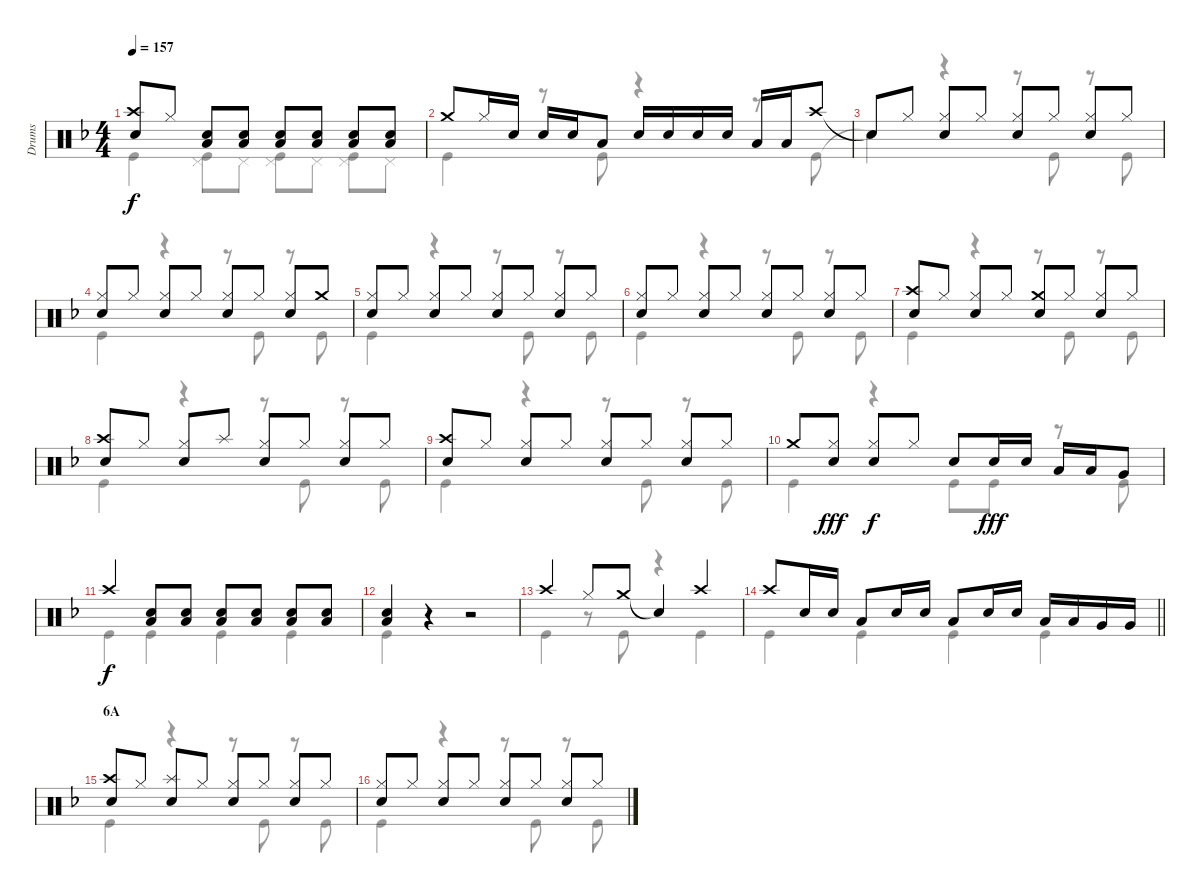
\track ("Drums" "Drums") {instrument percussion}
\staff {score}
\articulation defaults
\voice
\ts (4 4)
\tempo 157
\clef neutral
\ks f
("Crash high (hit)" "Snare (hit) 2").8{dy f} "Hi-Hat (closed)".8 ("Low Tom (hit)" "Snare (hit) 2").8 ("Low Tom (hit)" "Snare (hit) 2").8 ("Low Tom (hit)" "Snare (hit) 2").8 ("Low Tom (hit)" "Snare (hit) 2").8 ("Low Tom (hit)" "Snare (hit) 2").8 ("Low Tom (hit)" "Snare (hit) 2").8 |
"Crash medium (hit)".8 "Hi-Hat (closed)".16 "Snare (hit) 2".16 "Snare (hit) 2".16 "Snare (hit) 2".16 "Low Tom (hit)".8 "Snare (hit) 2".16 "Snare (hit) 2".16 "Snare (hit) 2".16 "Snare (hit) 2".16 "Low Tom (hit)".16 "Low Tom (hit)".16 "Crash high (hit)".8 |
"Snare (hit)"{t}.8 "Hi-Hat (closed)".8 ("Hi-Hat (closed)" "Snare (hit) 2").8 "Hi-Hat (closed)".8 ("Hi-Hat (closed)" "Snare (hit) 2").8 "Hi-Hat (closed)".8 ("Hi-Hat (closed)" "Snare (hit) 2").8 "Hi-Hat (closed)".8 |
("Hi-Hat (closed)" "Snare (hit) 2").8 "Hi-Hat (closed)".8 ("Hi-Hat (closed)" "Snare (hit) 2").8 "Hi-Hat (closed)".8 ("Hi-Hat (closed)" "Snare (hit) 2").8 "Hi-Hat (closed)".8 ("Hi-Hat (closed)" "Snare (hit) 2").8 "Crash medium (hit)".8 |
("Hi-Hat (closed)" "Snare (hit) 2").8 "Hi-Hat (closed)".8 ("Hi-Hat (closed)" "Snare (hit) 2").8 "Hi-Hat (closed)".8 ("Hi-Hat (closed)" "Snare (hit) 2").8 "Hi-Hat (closed)".8 ("Hi-Hat (closed)" "Snare (hit) 2").8 "Hi-Hat (closed)".8 |
("Hi-Hat (closed)" "Snare (hit) 2").8 "Hi-Hat (closed)".8 ("Hi-Hat (closed)" "Snare (hit) 2").8 "Hi-Hat (closed)".8 ("Hi-Hat (closed)" "Snare (hit) 2").8 "Hi-Hat (closed)".8 ("Hi-Hat (closed)" "Snare (hit) 2").8 "Hi-Hat (closed)".8 |
("Crash high (hit)" "Snare (hit) 2").8 "Hi-Hat (closed)".8 ("Hi-Hat (closed)" "Snare (hit) 2").8 "Hi-Hat (closed)".8 ("Crash medium (hit)" "Snare (hit) 2").8 "Hi-Hat (closed)".8 ("Hi-Hat (closed)" "Snare (hit) 2").8 "Hi-Hat (closed)".8 |
("Crash high (hit)" "Snare (hit) 2").8 "Hi-Hat (closed)".8 ("Hi-Hat (closed)" "Snare (hit) 2").8 "Splash (hit)".8 ("Hi-Hat (closed)" "Snare (hit) 2").8 "Hi-Hat (closed)".8 ("Hi-Hat (closed)" "Snare (hit) 2").8 "Hi-Hat (closed)".8 |
("Crash high (hit)" "Snare (hit) 2").8 "Hi-Hat (closed)".8 ("Hi-Hat (closed)" "Snare (hit) 2").8 "Hi-Hat (closed)".8 ("Hi-Hat (closed)" "Snare (hit) 2").8 "Hi-Hat (closed)".8 ("Hi-Hat (closed)" "Snare (hit) 2").8 "Hi-Hat (closed)".8 |
"Crash medium (hit)".8 ("Hi-Hat (closed)" "Snare (hit) 2").8{dy fff} ("Hi-Hat (closed)" "Snare (hit) 2").8{dy f} "Hi-Hat (closed)".8 "Snare (hit) 2".8 "Snare (hit) 2".16{dy fff} "Snare (hit) 2".16 "Low Tom (hit)".16 "Low Tom (hit)".16 "Very Low Tom (hit)".8 |
"Crash high (hit)".4{dy f} ("Snare (hit) 2" "Low Tom (hit)").8 ("Snare (hit) 2" "Low Tom (hit)").8 ("Snare (hit) 2" "Low Tom (hit)").8 ("Snare (hit) 2" "Low Tom (hit)").8 ("Snare (hit) 2" "Low Tom (hit)").8 ("Snare (hit) 2" "Low Tom (hit)").8 |
("Low Tom (hit)" "Snare (hit) 2").4 r.4 r.2 |
"Crash high (hit)".4 "Hi-Hat (closed)".8 "Crash medium (hit)".8 "Snare (hit)"{t}.4 "Crash high (hit)".4 |
\barLineRight lightlight "Crash high (hit)".8 "Snare (hit) 2".16 "Snare (hit) 2".16 "Low Tom (hit)".8 "Snare (hit) 2".16 "Snare (hit) 2".16 "Low Tom (hit)".8 "Snare (hit) 2".16 "Snare (hit) 2".16 "Low Tom (hit)".16 "Low Tom (hit)".16 "Very Low Tom (hit)".16 "Very Low Tom (hit)".16
|
\section ("" "6A")
("Crash high (hit)" "Snare (hit) 2").8 "Hi-Hat (closed)".8 ("Splash (hit)" "Snare (hit) 2").8 "Hi-Hat (closed)".8 ("Hi-Hat (closed)" "Snare (hit) 2").8 "Hi-Hat (closed)".8 ("Hi-Hat (closed)" "Snare (hit) 2").8 "Hi-Hat (closed)".8 |
("Hi-Hat (closed)" "Snare (hit) 2").8 "Hi-Hat (closed)".8 ("Hi-Hat (closed)" "Snare (hit) 2").8 "Hi-Hat (closed)".8 ("Hi-Hat (closed)" "Snare (hit) 2").8 "Hi-Hat (closed)".8 ("Hi-Hat (closed)" "Snare (hit) 2").8 "Hi-Hat (closed)".8
\voice
\clef neutral
\ottava regular
\simile none
\ks f "Kick (hit)".4{dy f}
("Pedal Hi-Hat (hit)" "Kick (hit)").8 "Pedal Hi-Hat (hit)".8 ("Pedal Hi-Hat (hit)" "Kick (hit)").8 "Pedal Hi-Hat (hit)".8 ("Pedal Hi-Hat (hit)" "Kick (hit)").8 "Pedal Hi-Hat (hit)".8 |
"Kick (hit)".4 r.8 "Kick (hit)".8 r.4 r.8 "Kick (hit)".8 |
"Snare (hit)"{t}.4 r.4 r.8 "Kick (hit)".8 r.8 "Kick (hit)".8 |
"Kick (hit)".4 r.4 r.8 "Kick (hit)".8 r.8 "Kick (hit)".8 |
"Kick (hit)".4 r.4 r.8 "Kick (hit)".8 r.8 "Kick (hit)".8 |
"Kick (hit)".4 r.4 r.8 "Kick (hit)".8 r.8 "Kick (hit)".8 |
"Kick (hit)".4 r.4 r.8 "Kick (hit)".8 r.8 "Kick (hit)".8 |
"Kick (hit)".4 r.4 r.8 "Kick (hit)".8 r.8 "Kick (hit)".8 |
"Kick (hit)".4 r.4 r.8 "Kick (hit)".8 r.8 "Kick (hit)".8 |
"Kick (hit)".4 r.4 "Kick (hit)".8 "Kick (hit)".8 r.8 "Kick (hit)".8 |
"Kick (hit)".4 "Kick (hit)".4 "Kick (hit)".4 "Kick (hit)".4 |
"Kick (hit)".4 r.4 r.2 |
"Kick (hit)".4 r.8 "Kick (hit)".8 r.4 "Kick (hit)".4 |
\barLineRight lightlight "Kick (hit)".4 "Kick (hit)".4 "Kick (hit)".4 "Kick (hit)".4
|
"Kick (hit)".4 r.4 r.8 "Kick (hit)".8 r.8 "Kick (hit)".8 |
"Kick (hit)".4 r.4 r.8 "Kick (hit)".8 r.8 "Kick (hit)".8
